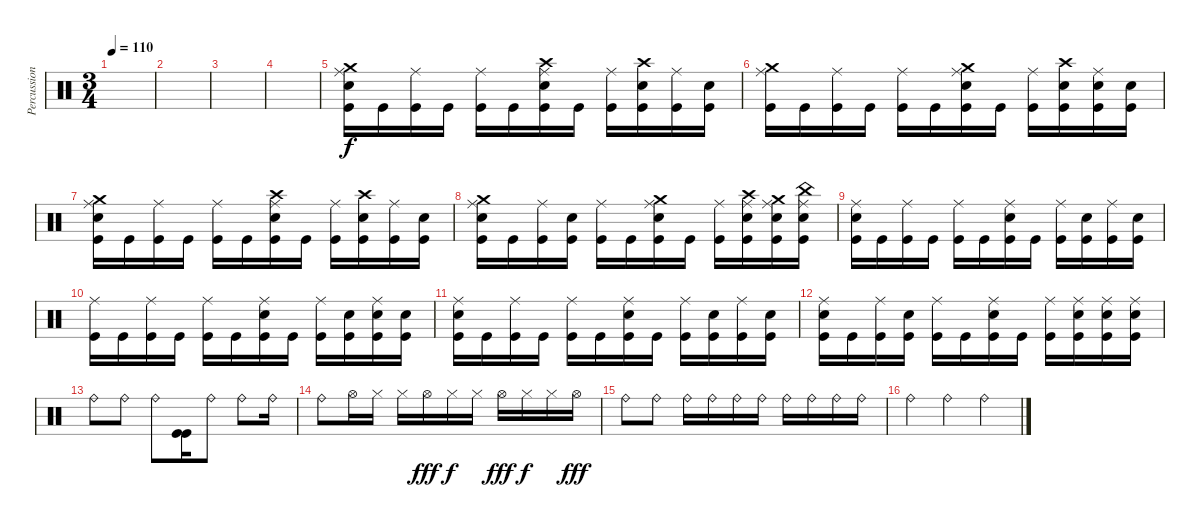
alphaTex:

\track ("Percussions" "Percussion") {instrument percussion}
\staff {score}
\articulation defaults
\ts (3 4)
\tempo 110
\clef neutral
\ks c
|
|
|
|
("Crash medium (hit)" "Ride (middle)" "Snare (hit) 2" "Kick (hit)").16 "Kick (hit)".16 ("Ride (middle)" "Kick (hit)").16 "Kick (hit)".16 ("Ride (middle)" "Kick (hit)").16 "Kick (hit)".16 ("Crash high (hit)" "Ride (middle)" "Snare (hit) 2" "Kick (hit)").16 "Kick (hit)".16 ("Ride (middle)" "Kick (hit)").16 ("Crash high (hit)" "Snare (hit) 2" "Kick (hit)").16 ("Ride (middle)" "Kick (hit)").16 ("Snare (hit) 2" "Kick (hit)").16 |
("Crash medium (hit)" "Ride (middle)" "Kick (hit)").16 "Kick (hit)".16 ("Ride (middle)" "Kick (hit)").16 "Kick (hit)".16 ("Ride (middle)" "Kick (hit)").16 "Kick (hit)".16 ("Crash medium (hit)" "Ride (middle)" "Snare (hit) 2" "Kick (hit)").16 "Kick (hit)".16 ("Ride (middle)" "Kick (hit)").16 ("Crash high (hit)" "Snare (hit) 2" "Kick (hit)").16 ("Ride (middle)" "Snare (hit) 2" "Kick (hit)").16 ("Snare (hit) 2" "Kick (hit)").16 |
("Crash medium (hit)" "Ride (middle)" "Snare (hit) 2" "Kick (hit)").16 "Kick (hit)".16 ("Ride (middle)" "Kick (hit)").16 "Kick (hit)".16 ("Ride (middle)" "Kick (hit)").16 "Kick (hit)".16 ("Crash high (hit)" "Ride (middle)" "Snare (hit) 2" "Kick (hit)").16 "Kick (hit)".16 ("Ride (middle)" "Kick (hit)").16 ("Crash high (hit)" "Snare (hit) 2" "Kick (hit)").16 ("Ride (middle)" "Kick (hit)").16 ("Snare (hit) 2" "Kick (hit)").16 |
("Crash medium (hit)" "Ride (middle)" "Snare (hit) 2" "Kick (hit)").16 "Kick (hit)".16 ("Ride (middle)" "Kick (hit)").16 ("Snare (hit) 2" "Kick (hit)").16 ("Ride (middle)" "Kick (hit)").16 "Kick (hit)".16 ("Crash medium (hit)" "Ride (middle)" "Snare (hit) 2" "Kick (hit)").16 "Kick (hit)".16 ("Ride (middle)" "Kick (hit)").16 ("Crash high (hit)" "Ride (middle)" "Snare (hit) 2" "Kick (hit)").16 ("Crash medium (hit)" "Ride (middle)" "Snare (hit) 2" "Kick (hit)").16 ("China (hit)" "Ride (middle)" "Snare (hit) 2" "Kick (hit)").16 |
("Ride (middle)" "Snare (hit) 2" "Kick (hit)").16 "Kick (hit)".16 ("Ride (middle)" "Kick (hit)").16 "Kick (hit)".16 ("Ride (middle)" "Kick (hit)").16 "Kick (hit)".16 ("Ride (middle)" "Snare (hit) 2" "Kick (hit)").16 "Kick (hit)".16 ("Ride (middle)" "Kick (hit)").16 ("Snare (hit) 2" "Kick (hit)").16 ("Ride (middle)" "Kick (hit)").16 ("Snare (hit) 2" "Kick (hit)").16 |
("Ride (middle)" "Kick (hit)").16 "Kick (hit)".16 ("Ride (middle)" "Kick (hit)").16 "Kick (hit)".16 ("Ride (middle)" "Kick (hit)").16 "Kick (hit)".16 ("Ride (middle)" "Snare (hit) 2" "Kick (hit)").16 "Kick (hit)".16 ("Ride (middle)" "Kick (hit)").16 ("Snare (hit) 2" "Kick (hit)").16 ("Ride (middle)" "Snare (hit) 2" "Kick (hit)").16 ("Snare (hit) 2" "Kick (hit)").16 |
("Ride (middle)" "Snare (hit) 2" "Kick (hit)").16 "Kick (hit)".16 ("Ride (middle)" "Kick (hit)").16 "Kick (hit)".16 ("Ride (middle)" "Kick (hit)").16 "Kick (hit)".16 ("Ride (middle)" "Snare (hit) 2" "Kick (hit)").16 "Kick (hit)".16 ("Ride (middle)" "Kick (hit)").16 ("Snare (hit) 2" "Kick (hit)").16 ("Ride (middle)" "Kick (hit)").16 ("Snare (hit) 2" "Kick (hit)").16 |
("Ride (middle)" "Snare (hit) 2" "Kick (hit)").16 "Kick (hit)".16 ("Ride (middle)" "Kick (hit)").16 ("Snare (hit) 2" "Kick (hit)").16 ("Ride (middle)" "Kick (hit)").16 "Kick (hit)".16 ("Ride (middle)" "Snare (hit) 2" "Kick (hit)").16 "Kick (hit)".16 ("Ride (middle)" "Kick (hit)").16 ("Ride (middle)" "Snare (hit) 2" "Kick (hit)").16 ("Ride (middle)" "Snare (hit) 2" "Kick (hit)").16 ("Ride (middle)" "Snare (hit) 2" "Kick (hit)").16 |
"Ride (bell)".8 "Ride (bell)".8 "Ride (bell)".8 ("Kick (hit)" "Kick (hit)").16 "Ride (bell)".8 "Ride (bell)".8 "Ride (bell)".16 |
"Ride (bell)".8 "Hi-Hat (open)".16 "Hi-Hat (closed)".16{dy f} "Hi-Hat (closed)".16 "Hi-Hat (open)".16{dy fff} "Hi-Hat (closed)".16{dy f} "Hi-Hat (closed)".16 "Hi-Hat (open)".16{dy fff} "Hi-Hat (closed)".16{dy f} "Hi-Hat (closed)".16 "Hi-Hat (open)".16{dy fff} |
"Ride (bell)".8 "Ride (bell)".8 "Ride (bell)".16 "Ride (bell)".16 "Ride (bell)".16 "Ride (bell)".16 "Ride (bell)".16 "Ride (bell)".16 "Ride (bell)".16 "Ride (bell)".16 |
"Ride (bell)".4 "Ride (bell)".4 "Ride (bell)".4
